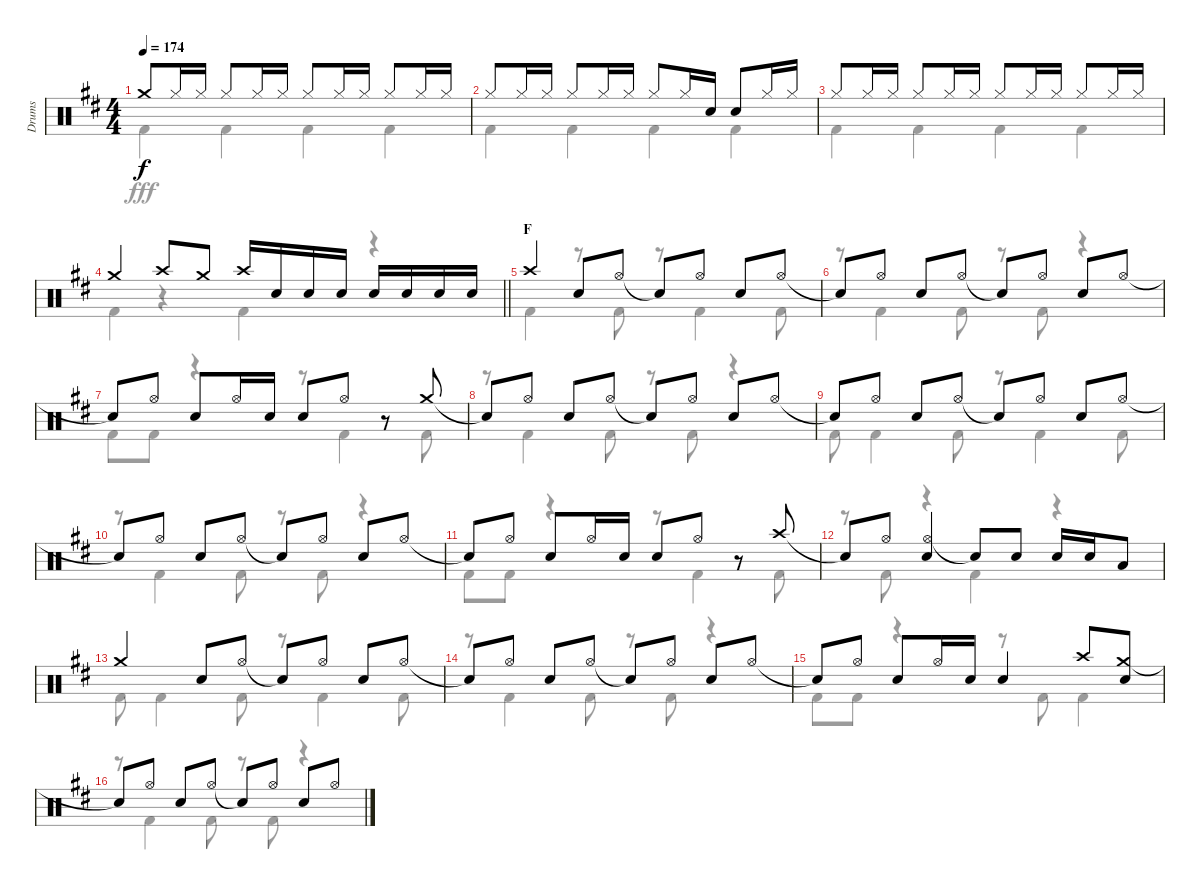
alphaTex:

\track ("Drums" "Drums") {instrument percussion}
\staff {score}
\articulation defaults
\voice
\ts (4 4)
\tempo 174
\clef neutral
\ks bminor "Crash medium (hit)".8{dy f} "Hi-Hat (closed)".16 "Hi-Hat (closed)".16 "Hi-Hat (closed)".8 "Hi-Hat (closed)".16 "Hi-Hat (closed)".16 "Hi-Hat (closed)".8 "Hi-Hat (closed)".16 "Hi-Hat (closed)".16 "Hi-Hat (closed)".8 "Hi-Hat (closed)".16 "Hi-Hat (closed)".16
|
"Hi-Hat (closed)".8 "Hi-Hat (closed)".16 "Hi-Hat (closed)".16 "Hi-Hat (closed)".8 "Hi-Hat (closed)".16 "Hi-Hat (closed)".16 "Hi-Hat (closed)".8 "Hi-Hat (closed)".16 "Snare (hit) 2".16 "Snare (hit) 2".8 "Hi-Hat (closed)".16 "Hi-Hat (closed)".16 |
"Hi-Hat (closed)".8 "Hi-Hat (closed)".16 "Hi-Hat (closed)".16 "Hi-Hat (closed)".8 "Hi-Hat (closed)".16 "Hi-Hat (closed)".16 "Hi-Hat (closed)".8 "Hi-Hat (closed)".16 "Hi-Hat (closed)".16 "Hi-Hat (closed)".8 "Hi-Hat (closed)".16 "Hi-Hat (closed)".16 |
\barLineRight lightlight "Crash medium (hit)".4 "Crash high (hit)".8 "Crash medium (hit)".8 "Crash high (hit)".16 "Snare (hit) 2".16 "Snare (hit) 2".16 "Snare (hit) 2".16 "Snare (hit) 2".16 "Snare (hit) 2".16 "Snare (hit) 2".16 "Snare (hit) 2".16
|
\section ("" "F")
"Crash high (hit)".4 "Snare (hit) 2".8 "Hi-Hat (open)".8 "Snare (hit)"{t}.8 "Hi-Hat (open)".8 "Snare (hit) 2".8 "Hi-Hat (open)".8 |
"Snare (hit)"{t}.8 "Hi-Hat (open)".8 "Snare (hit) 2".8 "Hi-Hat (open)".8 "Snare (hit)"{t}.8 "Hi-Hat (open)".8 "Snare (hit) 2".8 "Hi-Hat (open)".8 |
"Snare (hit)"{t}.8 "Hi-Hat (open)".8 "Snare (hit) 2".8 "Hi-Hat (open)".16 "Snare (hit) 2".16 "Snare (hit) 2".8 "Hi-Hat (open)".8 r.8 "Crash medium (hit)".8 |
"Snare (hit)"{t}.8 "Hi-Hat (open)".8 "Snare (hit) 2".8 "Hi-Hat (open)".8 "Snare (hit)"{t}.8 "Hi-Hat (open)".8 "Snare (hit) 2".8 "Hi-Hat (open)".8 |
"Snare (hit)"{t}.8 "Hi-Hat (open)".8 "Snare (hit) 2".8 "Hi-Hat (open)".8 "Snare (hit)"{t}.8 "Hi-Hat (open)".8 "Snare (hit) 2".8 "Hi-Hat (open)".8 |
"Snare (hit)"{t}.8 "Hi-Hat (open)".8 "Snare (hit) 2".8 "Hi-Hat (open)".8 "Snare (hit)"{t}.8 "Hi-Hat (open)".8 "Snare (hit) 2".8 "Hi-Hat (open)".8 |
"Snare (hit)"{t}.8 "Hi-Hat (open)".8 "Snare (hit) 2".8 "Hi-Hat (open)".16 "Snare (hit) 2".16 "Snare (hit) 2".8 "Hi-Hat (open)".8 r.8 "Crash high (hit)".8 |
"Snare (hit)"{t}.8 "Hi-Hat (open)".8 ("Hi-Hat (open)" "Snare (hit) 2").4 "Snare (hit)"{t}.8 "Snare (hit) 2".8 "Snare (hit) 2".16 "Snare (hit) 2".16 "Low Tom (hit)".8 |
"Crash medium (hit)".4 "Snare (hit) 2".8 "Hi-Hat (open)".8 "Snare (hit)"{t}.8 "Hi-Hat (open)".8 "Snare (hit) 2".8 "Hi-Hat (open)".8 |
"Snare (hit)"{t}.8 "Hi-Hat (open)".8 "Snare (hit) 2".8 "Hi-Hat (open)".8 "Snare (hit)"{t}.8 "Hi-Hat (open)".8 "Snare (hit) 2".8 "Hi-Hat (open)".8 |
"Snare (hit)"{t}.8 "Hi-Hat (open)".8 "Snare (hit) 2".8 "Hi-Hat (open)".16 "Snare (hit) 2".16 "Snare (hit) 2".4 "Crash high (hit)".8 ("Crash medium (hit)" "Snare (hit) 2").8 |
"Snare (hit)"{t}.8 "Hi-Hat (open)".8 "Snare (hit) 2".8 "Hi-Hat (open)".8 "Snare (hit)"{t}.8 "Hi-Hat (open)".8 "Snare (hit) 2".8 "Hi-Hat (open)".8
\voice
\clef neutral
\ottava regular
\simile none
\ks bminor "Kick (hit) 2".4{dy fff} "Kick (hit) 2".4 "Kick (hit) 2".4 "Kick (hit) 2".4
|
"Kick (hit) 2".4 "Kick (hit) 2".4 "Kick (hit) 2".4 "Kick (hit) 2".4 |
"Kick (hit) 2".4 "Kick (hit) 2".4 "Kick (hit) 2".4 "Kick (hit) 2".4 |
\barLineRight lightlight "Kick (hit) 2".4
r.4 "Kick (hit) 2".4 r.4 |
"Kick (hit) 2".4 r.8 "Kick (hit) 2".8 r.8 "Kick (hit) 2".4 "Kick (hit) 2".8 |
r.8 "Kick (hit) 2".4 "Kick (hit) 2".8 r.8 "Kick (hit) 2".8 r.4 |
"Kick (hit) 2".8 "Kick (hit) 2".8 r.4 r.8 "Kick (hit) 2".4 "Kick (hit) 2".8 |
r.8 "Kick (hit) 2".4 "Kick (hit) 2".8 r.8 "Kick (hit) 2".8 r.4 |
"Kick (hit) 2".8 "Kick (hit) 2".4 "Kick (hit) 2".8 r.8 "Kick (hit) 2".4 "Kick (hit) 2".8 |
r.8 "Kick (hit) 2".4 "Kick (hit) 2".8 r.8 "Kick (hit) 2".8 r.4 |
"Kick (hit) 2".8 "Kick (hit) 2".8 r.4 r.8 "Kick (hit) 2".4 "Kick (hit) 2".8 |
r.8 "Kick (hit) 2".8 r.4 "Kick (hit) 2".4 r.4 |
"Kick (hit) 2".8 "Kick (hit) 2".4 "Kick (hit) 2".8 r.8 "Kick (hit) 2".4 "Kick (hit) 2".8 |
r.8 "Kick (hit) 2".4 "Kick (hit) 2".8 r.8 "Kick (hit) 2".8 r.4 |
"Kick (hit) 2".8 "Kick (hit) 2".8 r.4 r.8 "Kick (hit) 2".8 "Kick (hit) 2".4 |
r.8 "Kick (hit) 2".4 "Kick (hit) 2".8 r.8 "Kick (hit) 2".8 r.4
